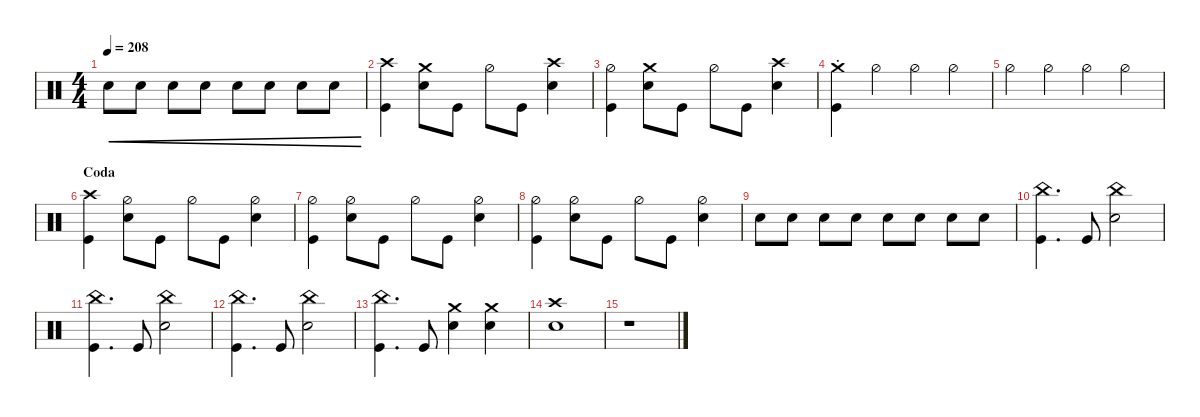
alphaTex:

\defaultSystemsLayout 4
\hideDynamics
\bracketExtendMode nobrackets
\singleTrackTrackNamePolicy hidden
\multiTrackTrackNamePolicy hidden
\otherSystemsTrackNameOrientation horizontal
\track ("Drums" "drm.") {multiBarRest instrument percussion}
\staff {score}
\articulation defaults
\ts (4 4)
\tempo 208
\clef neutral
\ks c "Snare (hit) 2".8{cre dy ff beam Down} "Snare (hit) 2".8{cre beam Down} "Snare (hit) 2".8{cre beam Down} "Snare (hit) 2".8{cre beam Down} "Snare (hit) 2".8{cre beam Down} "Snare (hit) 2".8{cre beam Down} "Snare (hit) 2".8{cre beam Down} "Snare (hit) 2".8{cre beam Down}
|
("Kick (hit)" "Crash high (hit)").4{dy f beam Down} ("Snare (hit) 2" "Crash medium (hit)").8{beam Down} "Kick (hit)".8{beam Down} "Hi-Hat (half)".8{beam Down} "Kick (hit)".8{beam Down} ("Snare (hit) 2" "Crash high (hit)").4{beam Down} |
("Kick (hit)" "Hi-Hat (half)").4{beam Down} ("Snare (hit) 2" "Crash medium (hit)").8{beam Down} "Kick (hit)".8{beam Down} "Hi-Hat (half)".8{beam Down} "Kick (hit)".8{beam Down} ("Snare (hit) 2" "Crash high (hit)").4{beam Down} |
("Kick (hit)" "Crash medium (hit)"{st}).4{beam Down} "Hi-Hat (half)".4{beam Down} "Hi-Hat (half)".4{beam Down} "Hi-Hat (half)".4{beam Down} |
"Hi-Hat (half)".4{beam Down} "Hi-Hat (half)".4{beam Down} "Hi-Hat (half)".4{beam Down} "Hi-Hat (half)".4{beam Down} |
\section ("" "Coda")
("Kick (hit)" "Crash high (hit)").4{beam Down} ("Snare (hit) 2" "Hi-Hat (half)").8{beam Down} "Kick (hit)".8{beam Down} "Hi-Hat (half)".8{beam Down} "Kick (hit)".8{beam Down} ("Snare (hit) 2" "Hi-Hat (half)").4{beam Down} |
("Kick (hit)" "Hi-Hat (half)").4{beam Down} ("Snare (hit) 2" "Hi-Hat (half)").8{beam Down} "Kick (hit)".8{beam Down} "Hi-Hat (half)".8{beam Down} "Kick (hit)".8{beam Down} ("Snare (hit) 2" "Hi-Hat (half)").4{beam Down} |
("Kick (hit)" "Hi-Hat (half)").4{beam Down} ("Snare (hit) 2" "Hi-Hat (half)").8{beam Down} "Kick (hit)".8{beam Down} "Hi-Hat (half)".8{beam Down} "Kick (hit)".8{beam Down} ("Snare (hit) 2" "Hi-Hat (half)").4{beam Down} |
"Snare (hit) 2".8{beam Down} "Snare (hit) 2".8{beam Down} "Snare (hit) 2".8{beam Down} "Snare (hit) 2".8{beam Down} "Snare (hit) 2".8{beam Down} "Snare (hit) 2".8{beam Down} "Snare (hit) 2".8{beam Down} "Snare (hit) 2".8{beam Down} |
("China (hit)" "Kick (hit)").4{d beam Down} "Kick (hit)".8{beam Up} ("Snare (hit) 2" "China (hit)").2{beam Down} |
("China (hit)" "Kick (hit)").4{d beam Down} "Kick (hit)".8{beam Up} ("Snare (hit) 2" "China (hit)").2{beam Down} |
("China (hit)" "Kick (hit)").4{d beam Down} "Kick (hit)".8{beam Up} ("Snare (hit) 2" "China (hit)").2{beam Down} |
("China (hit)" "Kick (hit)").4{d beam Down} "Kick (hit)".8{beam Up} ("Snare (hit) 2" "Crash medium (hit)").4{beam Down} ("Snare (hit) 2" "Crash medium (hit)").4{beam Down} |
("Snare (hit) 2" "Crash high (hit)").1{beam Down} |
r.1{beam Down}
